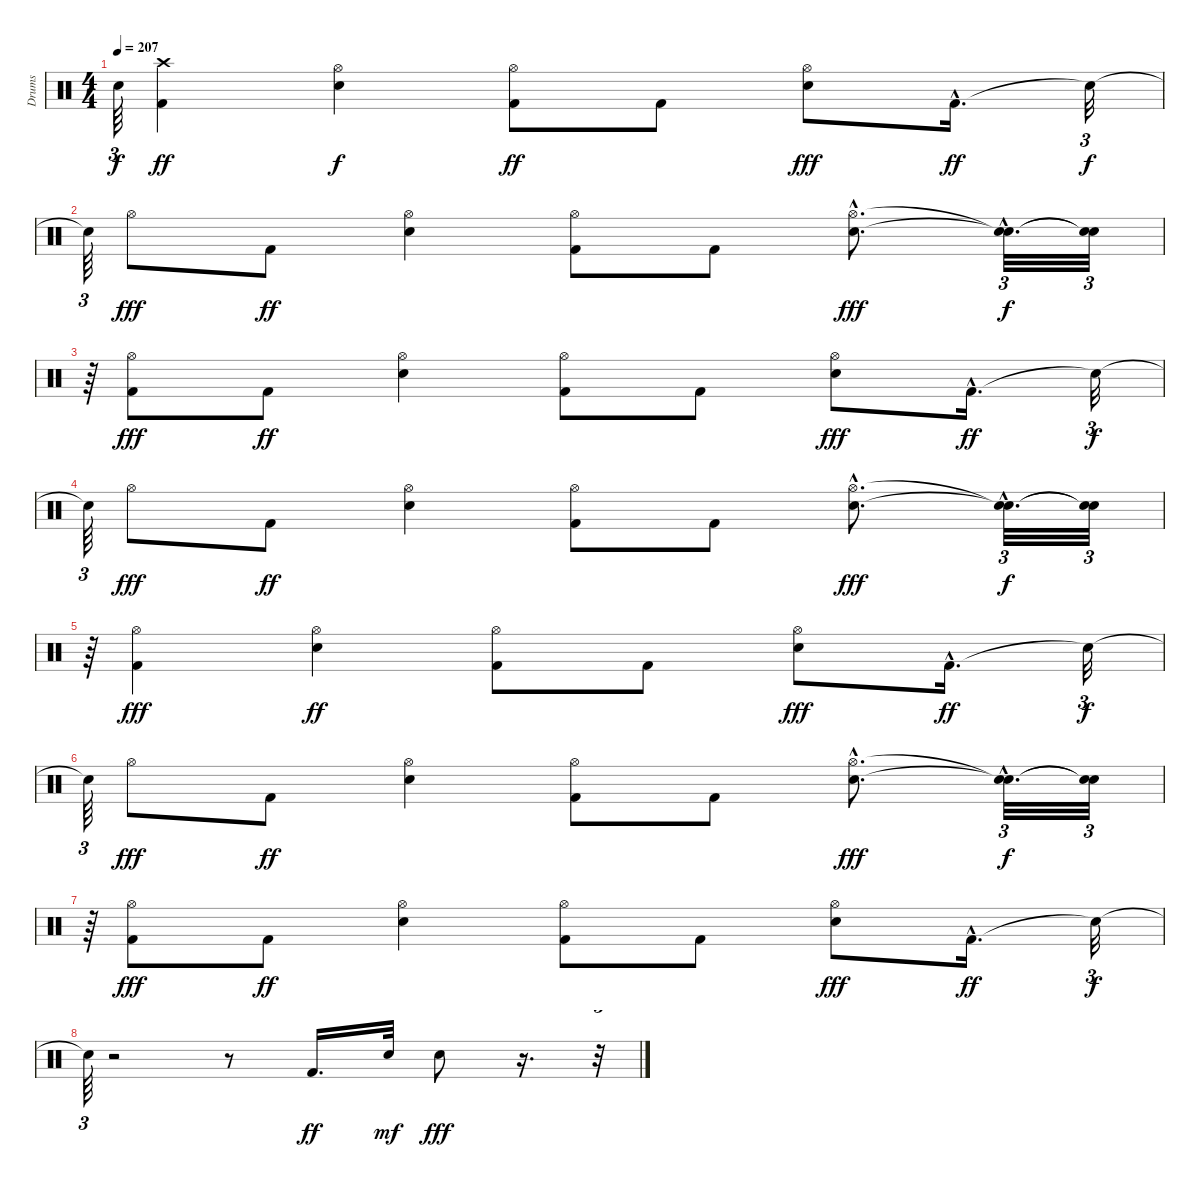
\track ("Drums" "Drums") {instrument percussion}
\staff {score}
\articulation defaults
\ts (4 4)
\tempo 207
\clef neutral
\ks c "Snare (hit)"{t}.64{tu (3 2) dy f}
("Crash high (hit)" "Kick (hit) 2").4{dy ff} ("Hi-Hat (open)" "Snare (hit) 2").4{dy f} ("Kick (hit) 2" "Hi-Hat (open)").8{dy ff} "Kick (hit) 2".8 ("Snare (hit) 2" "Hi-Hat (open)").8{dy fff} "Kick (hit) 2"{hac}.16{d dy ff} "Snare (hit)"{t}.32{tu (3 2) dy f} |
"Snare (hit)"{t}.64{tu (3 2)} "Hi-Hat (open)".8{dy fff} "Kick (hit) 2".8{dy ff} ("Snare (hit) 2" "Hi-Hat (open)").4 ("Kick (hit) 2" "Hi-Hat (open)").8 "Kick (hit) 2".8 ("Snare (hit) 2"{hac} "Hi-Hat (open)"{hac}).8{d dy fff} ("Snare (hit)"{hac t} "Snare (hit)"{hac t}).32{d tu (3 2) dy f} ("Snare (hit)"{t} "Snare (hit)"{t}).32{tu (3 2)} |
r.64{tu (3 2)} ("Kick (hit) 2" "Hi-Hat (open)").8{dy fff} "Kick (hit) 2".8{dy ff} ("Snare (hit) 2" "Hi-Hat (open)").4 ("Kick (hit) 2" "Hi-Hat (open)").8 "Kick (hit) 2".8 ("Snare (hit) 2" "Hi-Hat (open)").8{dy fff} "Kick (hit) 2"{hac}.16{d dy ff} "Snare (hit)"{t}.32{tu (3 2) dy f} |
"Snare (hit)"{t}.64{tu (3 2)} "Hi-Hat (open)".8{dy fff} "Kick (hit) 2".8{dy ff} ("Snare (hit) 2" "Hi-Hat (open)").4 ("Kick (hit) 2" "Hi-Hat (open)").8 "Kick (hit) 2".8 ("Snare (hit) 2"{hac} "Hi-Hat (open)"{hac}).8{d dy fff} ("Snare (hit)"{hac t} "Snare (hit)"{hac t}).32{d tu (3 2) dy f} ("Snare (hit)"{t} "Snare (hit)"{t}).32{tu (3 2)} |
r.64{tu (3 2)} ("Kick (hit) 2" "Hi-Hat (open)").4{dy fff} ("Snare (hit) 2" "Hi-Hat (open)").4{dy ff} ("Kick (hit) 2" "Hi-Hat (open)").8 "Kick (hit) 2".8 ("Snare (hit) 2" "Hi-Hat (open)").8{dy fff} "Kick (hit) 2"{hac}.16{d dy ff} "Snare (hit)"{t}.32{tu (3 2) dy f} |
"Snare (hit)"{t}.64{tu (3 2)} "Hi-Hat (open)".8{dy fff} "Kick (hit) 2".8{dy ff} ("Snare (hit) 2" "Hi-Hat (open)").4 ("Kick (hit) 2" "Hi-Hat (open)").8 "Kick (hit) 2".8 ("Snare (hit) 2"{hac} "Hi-Hat (open)"{hac}).8{d dy fff} ("Snare (hit)"{hac t} "Snare (hit)"{hac t}).32{d tu (3 2) dy f} ("Snare (hit)"{t} "Snare (hit)"{t}).32{tu (3 2)} |
r.64{tu (3 2)} ("Kick (hit) 2" "Hi-Hat (open)").8{dy fff} "Kick (hit) 2".8{dy ff} ("Snare (hit) 2" "Hi-Hat (open)").4 ("Kick (hit) 2" "Hi-Hat (open)").8 "Kick (hit) 2".8 ("Snare (hit) 2" "Hi-Hat (open)").8{dy fff} "Kick (hit) 2"{hac}.16{d dy ff} "Snare (hit)"{t}.32{tu (3 2) dy f} |
"Snare (hit)"{t}.64{tu (3 2)} r.2 r.8 "Kick (hit) 2".16{d dy ff} "Snare (hit) 2".32{dy mf} "Snare (hit) 2".8{dy fff} r.16{d} r.32{tu (3 2)}
